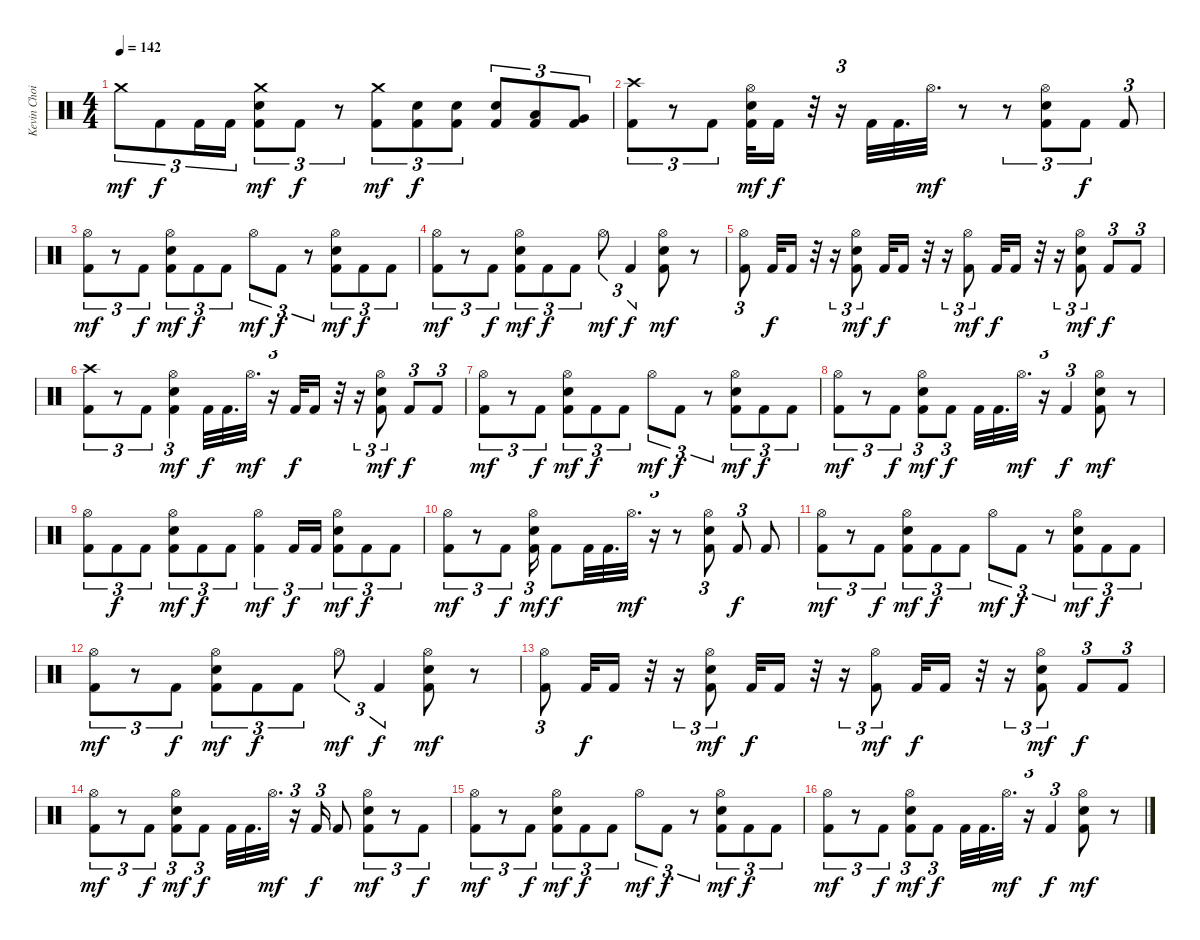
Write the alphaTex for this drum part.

\track ("Kevin Choiral" "Kevin Choi") {instrument percussion}
\staff
\articulation defaults
\ts (4 4)
\tempo 142
\clef neutral
\ks c "Crash medium (hit)".8{tu (3 2) dy mf} "Kick (hit) 2".8{tu (3 2) dy f} "Kick (hit) 2".16{tu (3 2)} "Kick (hit) 2".16{tu (3 2)}
("Crash medium (hit)" "Electric Snare (hit)" "Kick (hit) 2").8{tu (3 2) dy mf} "Kick (hit) 2".8{tu (3 2) dy f} r.8{tu (3 2)} ("Crash medium (hit)" "Kick (hit) 2").8{tu (3 2) dy mf} ("Electric Snare (hit)" "Kick (hit) 2").8{tu (3 2) dy f} ("Electric Snare (hit)" "Kick (hit) 2").8{tu (3 2)} ("Electric Snare (hit)" "Kick (hit) 2").8{tu (3 2)} ("Low Tom (hit)" "Kick (hit) 2").8{tu (3 2)} ("Very Low Tom (hit)" "Kick (hit) 2").8{tu (3 2)} |
("Crash high (hit)" "Kick (hit) 2").8{tu (3 2)} r.8{tu (3 2)} "Kick (hit) 2".8{tu (3 2)} ("Hi-Hat (open)" "Electric Snare (hit)" "Kick (hit) 2").32{dy mf} "Kick (hit) 2".16{dy f} r.32 r.16{tu (3 2)} "Kick (hit) 2".32 "Kick (hit) 2".32{d} "Hi-Hat (open)".32{d dy mf} r.8 r.8{tu (3 2)} ("Hi-Hat (open)" "Electric Snare (hit)" "Kick (hit) 2").8{tu (3 2)} "Kick (hit) 2".8{tu (3 2) dy f} "Kick (hit) 2".8{tu (3 2)} |
("Hi-Hat (open)" "Kick (hit) 2").8{tu (3 2) dy mf} r.8{tu (3 2)} "Kick (hit) 2".8{tu (3 2) dy f} ("Hi-Hat (open)" "Electric Snare (hit)" "Kick (hit) 2").8{tu (3 2) dy mf} "Kick (hit) 2".8{tu (3 2) dy f} "Kick (hit) 2".8{tu (3 2)} "Hi-Hat (open)".8{tu (3 2) dy mf} "Kick (hit) 2".8{tu (3 2) dy f} r.8{tu (3 2)} ("Hi-Hat (open)" "Electric Snare (hit)" "Kick (hit) 2").8{tu (3 2) dy mf} "Kick (hit) 2".8{tu (3 2) dy f} "Kick (hit) 2".8{tu (3 2)} |
("Hi-Hat (open)" "Kick (hit) 2").8{tu (3 2) dy mf} r.8{tu (3 2)} "Kick (hit) 2".8{tu (3 2) dy f} ("Hi-Hat (open)" "Electric Snare (hit)" "Kick (hit) 2").8{tu (3 2) dy mf} "Kick (hit) 2".8{tu (3 2) dy f} "Kick (hit) 2".8{tu (3 2)} "Hi-Hat (open)".8{tu (3 2) dy mf} "Kick (hit) 2".4{tu (3 2) dy f} ("Hi-Hat (open)" "Electric Snare (hit)" "Kick (hit) 2").8{dy mf} r.8 |
("Hi-Hat (open)" "Kick (hit) 2").8{tu (3 2)} "Kick (hit) 2".32{dy f} "Kick (hit) 2".16 r.32 r.16{tu (3 2)} ("Hi-Hat (open)" "Electric Snare (hit)" "Kick (hit) 2").8{tu (3 2) dy mf} "Kick (hit) 2".32{dy f} "Kick (hit) 2".16 r.32 r.16{tu (3 2)} ("Hi-Hat (open)" "Kick (hit) 2").8{tu (3 2) dy mf} "Kick (hit) 2".32{dy f} "Kick (hit) 2".16 r.32 r.16{tu (3 2)} ("Hi-Hat (open)" "Electric Snare (hit)" "Kick (hit) 2").8{tu (3 2) dy mf} "Kick (hit) 2".8{tu (3 2) dy f} "Kick (hit) 2".8{tu (3 2)} |
("Crash high (hit)" "Kick (hit) 2").8{tu (3 2)} r.8{tu (3 2)} "Kick (hit) 2".8{tu (3 2)} ("Hi-Hat (open)" "Electric Snare (hit)" "Kick (hit) 2").4{tu (3 2) dy mf} "Kick (hit) 2".32{dy f} "Kick (hit) 2".32{d} "Hi-Hat (open)".32{d dy mf} r.16{tu (3 2)} "Kick (hit) 2".32{dy f} "Kick (hit) 2".16 r.32 r.16{tu (3 2)} ("Hi-Hat (open)" "Electric Snare (hit)" "Kick (hit) 2").8{tu (3 2) dy mf} "Kick (hit) 2".8{tu (3 2) dy f} "Kick (hit) 2".8{tu (3 2)} |
("Hi-Hat (open)" "Kick (hit) 2").8{tu (3 2) dy mf} r.8{tu (3 2)} "Kick (hit) 2".8{tu (3 2) dy f} ("Hi-Hat (open)" "Electric Snare (hit)" "Kick (hit) 2").8{tu (3 2) dy mf} "Kick (hit) 2".8{tu (3 2) dy f} "Kick (hit) 2".8{tu (3 2)} "Hi-Hat (open)".8{tu (3 2) dy mf} "Kick (hit) 2".8{tu (3 2) dy f} r.8{tu (3 2)} ("Hi-Hat (open)" "Electric Snare (hit)" "Kick (hit) 2").8{tu (3 2) dy mf} "Kick (hit) 2".8{tu (3 2) dy f} "Kick (hit) 2".8{tu (3 2)} |
("Hi-Hat (open)" "Kick (hit) 2").8{tu (3 2) dy mf} r.8{tu (3 2)} "Kick (hit) 2".8{tu (3 2) dy f} ("Hi-Hat (open)" "Electric Snare (hit)" "Kick (hit) 2").8{tu (3 2) dy mf} "Kick (hit) 2".8{tu (3 2) dy f} "Kick (hit) 2".32 "Kick (hit) 2".32{d} "Hi-Hat (open)".32{d dy mf} r.16{tu (3 2)} "Kick (hit) 2".4{tu (3 2) dy f} ("Hi-Hat (open)" "Electric Snare (hit)" "Kick (hit) 2").8{dy mf} r.8 |
("Hi-Hat (open)" "Kick (hit) 2").8{tu (3 2)} "Kick (hit) 2".8{tu (3 2) dy f} "Kick (hit) 2".8{tu (3 2)} ("Hi-Hat (open)" "Electric Snare (hit)" "Kick (hit) 2").8{tu (3 2) dy mf} "Kick (hit) 2".8{tu (3 2) dy f} "Kick (hit) 2".8{tu (3 2)} ("Hi-Hat (open)" "Kick (hit) 2").4{tu (3 2) dy mf} "Kick (hit) 2".16{tu (3 2) dy f} "Kick (hit) 2".16{tu (3 2)} ("Hi-Hat (open)" "Electric Snare (hit)" "Kick (hit) 2").8{tu (3 2) dy mf} "Kick (hit) 2".8{tu (3 2) dy f} "Kick (hit) 2".8{tu (3 2)} |
("Hi-Hat (open)" "Kick (hit) 2").8{tu (3 2) dy mf} r.8{tu (3 2)} "Kick (hit) 2".8{tu (3 2) dy f} ("Hi-Hat (open)" "Electric Snare (hit)" "Kick (hit) 2").16{tu (3 2) dy mf} "Kick (hit) 2".8{dy f} "Kick (hit) 2".32 "Kick (hit) 2".32{d} "Hi-Hat (open)".32{d dy mf} r.16{tu (3 2)} r.8 ("Hi-Hat (open)" "Electric Snare (hit)" "Kick (hit) 2").8{tu (3 2)} "Kick (hit) 2".8{tu (3 2) dy f} "Kick (hit) 2".8 |
("Hi-Hat (open)" "Kick (hit) 2").8{tu (3 2) dy mf} r.8{tu (3 2)} "Kick (hit) 2".8{tu (3 2) dy f} ("Hi-Hat (open)" "Electric Snare (hit)" "Kick (hit) 2").8{tu (3 2) dy mf} "Kick (hit) 2".8{tu (3 2) dy f} "Kick (hit) 2".8{tu (3 2)} "Hi-Hat (open)".8{tu (3 2) dy mf} "Kick (hit) 2".8{tu (3 2) dy f} r.8{tu (3 2)} ("Hi-Hat (open)" "Electric Snare (hit)" "Kick (hit) 2").8{tu (3 2) dy mf} "Kick (hit) 2".8{tu (3 2) dy f} "Kick (hit) 2".8{tu (3 2)} |
("Hi-Hat (open)" "Kick (hit) 2").8{tu (3 2) dy mf} r.8{tu (3 2)} "Kick (hit) 2".8{tu (3 2) dy f} ("Hi-Hat (open)" "Electric Snare (hit)" "Kick (hit) 2").8{tu (3 2) dy mf} "Kick (hit) 2".8{tu (3 2) dy f} "Kick (hit) 2".8{tu (3 2)} "Hi-Hat (open)".8{tu (3 2) dy mf} "Kick (hit) 2".4{tu (3 2) dy f} ("Hi-Hat (open)" "Electric Snare (hit)" "Kick (hit) 2").8{dy mf} r.8 |
("Hi-Hat (open)" "Kick (hit) 2").8{tu (3 2)} "Kick (hit) 2".32{dy f} "Kick (hit) 2".16 r.32 r.16{tu (3 2)} ("Hi-Hat (open)" "Electric Snare (hit)" "Kick (hit) 2").8{tu (3 2) dy mf} "Kick (hit) 2".32{dy f} "Kick (hit) 2".16 r.32 r.16{tu (3 2)} ("Hi-Hat (open)" "Kick (hit) 2").8{tu (3 2) dy mf} "Kick (hit) 2".32{dy f} "Kick (hit) 2".16 r.32 r.16{tu (3 2)} ("Hi-Hat (open)" "Electric Snare (hit)" "Kick (hit) 2").8{tu (3 2) dy mf} "Kick (hit) 2".8{tu (3 2) dy f} "Kick (hit) 2".8{tu (3 2)} |
("Hi-Hat (open)" "Kick (hit) 2").8{tu (3 2) dy mf} r.8{tu (3 2)} "Kick (hit) 2".8{tu (3 2) dy f} ("Hi-Hat (open)" "Electric Snare (hit)" "Kick (hit) 2").8{tu (3 2) dy mf} "Kick (hit) 2".8{tu (3 2) dy f} "Kick (hit) 2".32 "Kick (hit) 2".32{d} "Hi-Hat (open)".32{d dy mf} r.16{tu (3 2)} "Kick (hit) 2".16{tu (3 2) dy f} "Kick (hit) 2".8 ("Hi-Hat (open)" "Electric Snare (hit)" "Kick (hit) 2").8{tu (3 2) dy mf} r.8{tu (3 2)} "Kick (hit) 2".8{tu (3 2) dy f} |
("Hi-Hat (open)" "Kick (hit) 2").8{tu (3 2) dy mf} r.8{tu (3 2)} "Kick (hit) 2".8{tu (3 2) dy f} ("Hi-Hat (open)" "Electric Snare (hit)" "Kick (hit) 2").8{tu (3 2) dy mf} "Kick (hit) 2".8{tu (3 2) dy f} "Kick (hit) 2".8{tu (3 2)} "Hi-Hat (open)".8{tu (3 2) dy mf} "Kick (hit) 2".8{tu (3 2) dy f} r.8{tu (3 2)} ("Hi-Hat (open)" "Electric Snare (hit)" "Kick (hit) 2").8{tu (3 2) dy mf} "Kick (hit) 2".8{tu (3 2) dy f} "Kick (hit) 2".8{tu (3 2)} |
("Hi-Hat (open)" "Kick (hit) 2").8{tu (3 2) dy mf} r.8{tu (3 2)} "Kick (hit) 2".8{tu (3 2) dy f} ("Hi-Hat (open)" "Electric Snare (hit)" "Kick (hit) 2").8{tu (3 2) dy mf} "Kick (hit) 2".8{tu (3 2) dy f} "Kick (hit) 2".32 "Kick (hit) 2".32{d} "Hi-Hat (open)".32{d dy mf} r.16{tu (3 2)} "Kick (hit) 2".4{tu (3 2) dy f} ("Hi-Hat (open)" "Electric Snare (hit)" "Kick (hit) 2").8{dy mf} r.8
